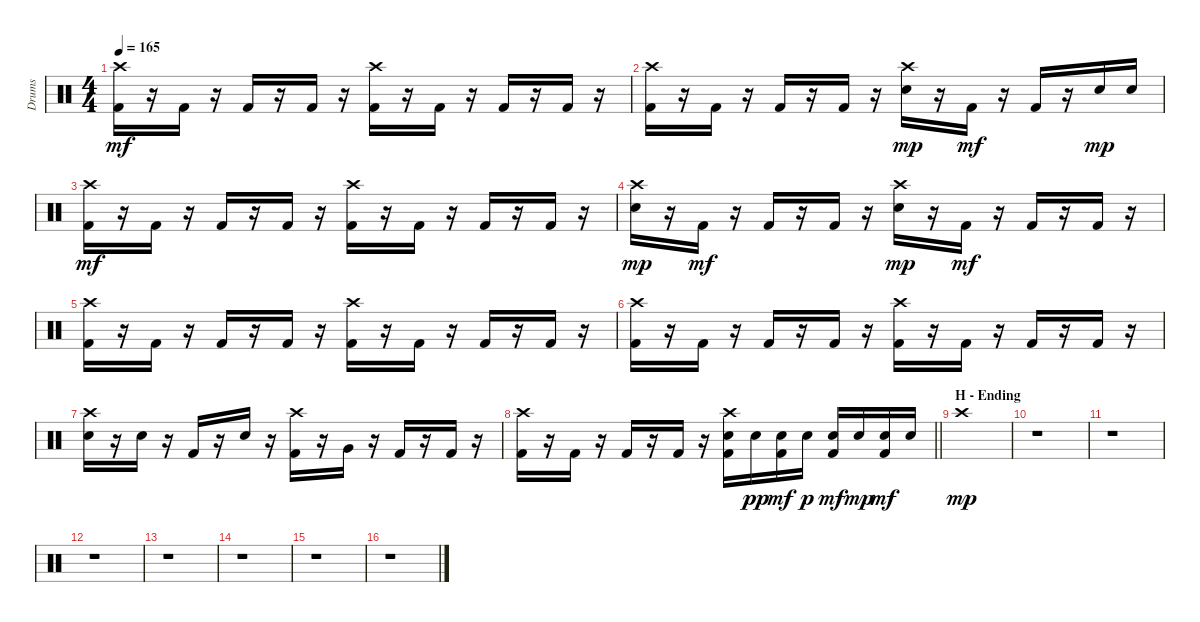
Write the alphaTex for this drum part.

\track ("Drums" "Drums") {instrument percussion}
\staff {score}
\articulation defaults
\ts (4 4)
\tempo 165
\clef neutral
\ks c
("Crash high (hit)" "Kick (hit) 2").16{dy mf} r.16 "Kick (hit) 2".16 r.16 "Kick (hit) 2".16 r.16 "Kick (hit) 2".16 r.16 ("Crash high (hit)" "Kick (hit) 2").16 r.16 "Kick (hit) 2".16 r.16 "Kick (hit) 2".16 r.16 "Kick (hit) 2".16 r.16 |
("Crash high (hit)" "Kick (hit) 2").16 r.16 "Kick (hit) 2".16 r.16 "Kick (hit) 2".16 r.16 "Kick (hit) 2".16 r.16 ("Crash high (hit)" "Electric Snare (hit)").16{dy mp} r.16 "Kick (hit) 2".16{dy mf} r.16 "Kick (hit) 2".16 r.16 "Electric Snare (hit)".16{dy mp} "Electric Snare (hit)".16 |
("Crash high (hit)" "Kick (hit) 2").16{dy mf} r.16 "Kick (hit) 2".16 r.16 "Kick (hit) 2".16 r.16 "Kick (hit) 2".16 r.16 ("Crash high (hit)" "Kick (hit) 2").16 r.16 "Kick (hit) 2".16 r.16 "Kick (hit) 2".16 r.16 "Kick (hit) 2".16 r.16 |
("Crash high (hit)" "Electric Snare (hit)").16{dy mp} r.16 "Kick (hit) 2".16{dy mf} r.16 "Kick (hit) 2".16 r.16 "Kick (hit) 2".16 r.16 ("Crash high (hit)" "Electric Snare (hit)").16{dy mp} r.16 "Kick (hit) 2".16{dy mf} r.16 "Kick (hit) 2".16 r.16 "Kick (hit) 2".16 r.16 |
("Crash high (hit)" "Kick (hit) 2").16 r.16 "Kick (hit) 2".16 r.16 "Kick (hit) 2".16 r.16 "Kick (hit) 2".16 r.16 ("Crash high (hit)" "Kick (hit) 2").16 r.16 "Kick (hit) 2".16 r.16 "Kick (hit) 2".16 r.16 "Kick (hit) 2".16 r.16 |
("Crash high (hit)" "Kick (hit) 2").16 r.16 "Kick (hit) 2".16 r.16 "Kick (hit) 2".16 r.16 "Kick (hit) 2".16 r.16 ("Crash high (hit)" "Kick (hit) 2").16 r.16 "Kick (hit) 2".16 r.16 "Kick (hit) 2".16 r.16 "Kick (hit) 2".16 r.16 |
("Crash high (hit)" "Electric Snare (hit)").16 r.16 "Electric Snare (hit)".16 r.16 "Kick (hit) 2".16 r.16 "Electric Snare (hit)".16 r.16 ("Crash high (hit)" "Kick (hit) 2").16 r.16 "Very Low Tom (hit)".16 r.16 "Kick (hit) 2".16 r.16 "Kick (hit) 2".16 r.16 |
\barLineRight lightlight
("Crash high (hit)" "Kick (hit) 2").16 r.16 "Kick (hit) 2".16 r.16 "Kick (hit) 2".16 r.16 "Kick (hit) 2".16 r.16 ("Crash high (hit)" "Electric Snare (hit)" "Kick (hit) 2").16 "Electric Snare (hit)".16{dy pp} ("Electric Snare (hit)" "Kick (hit) 2").16{dy mf} "Electric Snare (hit)".16{dy p} ("Electric Snare (hit)" "Kick (hit) 2").16{dy mf} "Electric Snare (hit)".16{dy mp} ("Electric Snare (hit)" "Kick (hit) 2").16{dy mf} "Electric Snare (hit)".16 |
\section ("" "H - Ending")
"Crash high (hit)".1{dy mp} |
r.1 |
r.1 |
r.1 |
r.1 |
r.1 |
r.1 |
r.1
